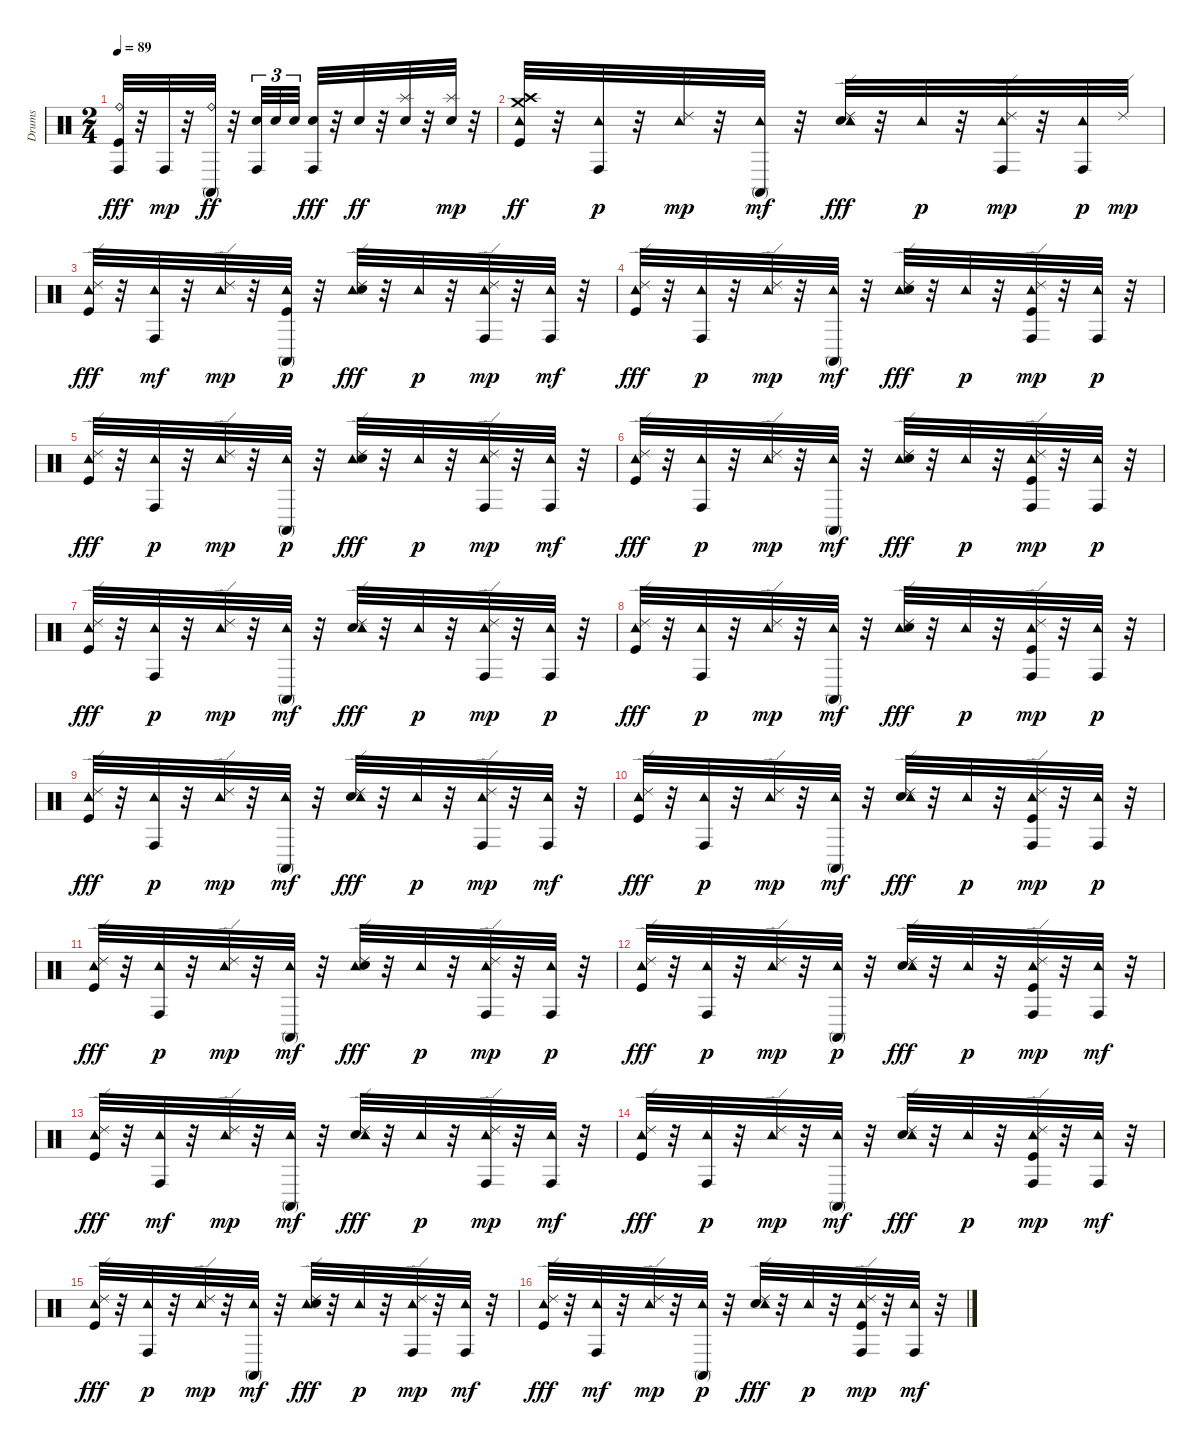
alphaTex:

\track ("Drums" "Drums") {instrument percussion}
\staff {score}
\articulation defaults
\ts (2 4)
\tempo 89
\clef neutral
\ks c
("Conga high (hit)" "Ride (bell)" "Kick (hit)").32{dy fff} r.32 "Conga high (hit)".32{dy mp} r.32 ("Ride (bell)" "Conga high (mute)").32{dy ff} r.32 ("Conga high (hit)" "Snare (hit) 2").32{tu (3 2)} "Snare (hit) 2".32{tu (3 2)} "Snare (hit) 2".32{tu (3 2)} ("Conga high (hit)" "Snare (hit) 2").32{dy fff} r.32 "Snare (hit) 2".32{dy ff} r.32 ("Snare (hit) 2" "Splash (hit)").32 r.32 ("Snare (hit) 2" "Splash (hit)").32{dy mp} r.32 |
("Crash high (hit)" "Kick (hit)" "Tambourine (hit)" "Crash medium (hit)").32{dy ff} r.32 ("Conga high (hit)" "Tambourine (hit)").32{dy p} r.32 ("Ride (edge) 2" "Tambourine (hit)").32{dy mp} r.32 ("Tambourine (hit)" "Conga high (mute)").32{dy mf} r.32 ("Snare (hit) 2" "Ride (edge) 2" "Tambourine (hit)").32{dy fff} r.32 "Tambourine (hit)".32{dy p} r.32 ("Conga high (hit)" "Ride (edge) 2" "Tambourine (hit)").32{dy mp} r.32 ("Conga high (hit)" "Tambourine (hit)").32{dy p} "Ride (edge) 2".32{dy mp} |
("Kick (hit)" "Tambourine (hit)" "Ride (edge) 2").32{dy fff} r.32 ("Tambourine (hit)" "Conga high (hit)").32{dy mf} r.32 ("Tambourine (hit)" "Ride (edge) 2").32{dy mp} r.32 ("Conga high (mute)" "Kick (hit)" "Tambourine (hit)").32{dy p} r.32 ("Tambourine (hit)" "Snare (hit) 2" "Ride (edge) 2").32{dy fff} r.32 "Tambourine (hit)".32{dy p} r.32 ("Conga high (hit)" "Ride (edge) 2" "Tambourine (hit)").32{dy mp} r.32 ("Tambourine (hit)" "Conga high (hit)").32{dy mf} r.32 |
("Kick (hit)" "Ride (edge) 2" "Tambourine (hit)").32{dy fff} r.32 ("Conga high (hit)" "Tambourine (hit)").32{dy p} r.32 ("Ride (edge) 2" "Tambourine (hit)").32{dy mp} r.32 ("Tambourine (hit)" "Conga high (mute)").32{dy mf} r.32 ("Tambourine (hit)" "Snare (hit) 2" "Ride (edge) 2").32{dy fff} r.32 "Tambourine (hit)".32{dy p} r.32 ("Kick (hit)" "Ride (edge) 2" "Tambourine (hit)" "Conga high (hit)").32{dy mp} r.32 ("Conga high (hit)" "Tambourine (hit)").32{dy p} r.32 |
("Kick (hit)" "Tambourine (hit)" "Ride (edge) 2").32{dy fff} r.32 ("Conga high (hit)" "Tambourine (hit)").32{dy p} r.32 ("Tambourine (hit)" "Ride (edge) 2").32{dy mp} r.32 ("Conga high (mute)" "Tambourine (hit)").32{dy p} r.32 ("Tambourine (hit)" "Snare (hit) 2" "Ride (edge) 2").32{dy fff} r.32 "Tambourine (hit)".32{dy p} r.32 ("Conga high (hit)" "Ride (edge) 2" "Tambourine (hit)").32{dy mp} r.32 ("Tambourine (hit)" "Conga high (hit)").32{dy mf} r.32 |
("Kick (hit)" "Ride (edge) 2" "Tambourine (hit)").32{dy fff} r.32 ("Conga high (hit)" "Tambourine (hit)").32{dy p} r.32 ("Tambourine (hit)" "Ride (edge) 2").32{dy mp} r.32 ("Tambourine (hit)" "Conga high (mute)").32{dy mf} r.32 ("Tambourine (hit)" "Snare (hit) 2" "Ride (edge) 2").32{dy fff} r.32 "Tambourine (hit)".32{dy p} r.32 ("Conga high (hit)" "Ride (edge) 2" "Tambourine (hit)" "Kick (hit)").32{dy mp} r.32 ("Conga high (hit)" "Tambourine (hit)").32{dy p} r.32 |
("Ride (edge) 2" "Kick (hit)" "Tambourine (hit)").32{dy fff} r.32 ("Conga high (hit)" "Tambourine (hit)").32{dy p} r.32 ("Tambourine (hit)" "Ride (edge) 2").32{dy mp} r.32 ("Tambourine (hit)" "Conga high (mute)").32{dy mf} r.32 ("Ride (edge) 2" "Snare (hit) 2" "Tambourine (hit)").32{dy fff} r.32 "Tambourine (hit)".32{dy p} r.32 ("Conga high (hit)" "Ride (edge) 2" "Tambourine (hit)").32{dy mp} r.32 ("Conga high (hit)" "Tambourine (hit)").32{dy p} r.32 |
("Kick (hit)" "Ride (edge) 2" "Tambourine (hit)").32{dy fff} r.32 ("Conga high (hit)" "Tambourine (hit)").32{dy p} r.32 ("Ride (edge) 2" "Tambourine (hit)").32{dy mp} r.32 ("Tambourine (hit)" "Conga high (mute)").32{dy mf} r.32 ("Tambourine (hit)" "Snare (hit) 2" "Ride (edge) 2").32{dy fff} r.32 "Tambourine (hit)".32{dy p} r.32 ("Ride (edge) 2" "Conga high (hit)" "Tambourine (hit)" "Kick (hit)").32{dy mp} r.32 ("Conga high (hit)" "Tambourine (hit)").32{dy p} r.32 |
("Kick (hit)" "Tambourine (hit)" "Ride (edge) 2").32{dy fff} r.32 ("Conga high (hit)" "Tambourine (hit)").32{dy p} r.32 ("Tambourine (hit)" "Ride (edge) 2").32{dy mp} r.32 ("Tambourine (hit)" "Conga high (mute)").32{dy mf} r.32 ("Snare (hit) 2" "Ride (edge) 2" "Tambourine (hit)").32{dy fff} r.32 "Tambourine (hit)".32{dy p} r.32 ("Conga high (hit)" "Ride (edge) 2" "Tambourine (hit)").32{dy mp} r.32 ("Tambourine (hit)" "Conga high (hit)").32{dy mf} r.32 |
("Kick (hit)" "Ride (edge) 2" "Tambourine (hit)").32{dy fff} r.32 ("Conga high (hit)" "Tambourine (hit)").32{dy p} r.32 ("Tambourine (hit)" "Ride (edge) 2").32{dy mp} r.32 ("Tambourine (hit)" "Conga high (mute)").32{dy mf} r.32 ("Snare (hit) 2" "Ride (edge) 2" "Tambourine (hit)").32{dy fff} r.32 "Tambourine (hit)".32{dy p} r.32 ("Conga high (hit)" "Kick (hit)" "Tambourine (hit)" "Ride (edge) 2").32{dy mp} r.32 ("Conga high (hit)" "Tambourine (hit)").32{dy p} r.32 |
("Ride (edge) 2" "Kick (hit)" "Tambourine (hit)").32{dy fff} r.32 ("Conga high (hit)" "Tambourine (hit)").32{dy p} r.32 ("Ride (edge) 2" "Tambourine (hit)").32{dy mp} r.32 ("Tambourine (hit)" "Conga high (mute)").32{dy mf} r.32 ("Ride (edge) 2" "Tambourine (hit)" "Snare (hit) 2").32{dy fff} r.32 "Tambourine (hit)".32{dy p} r.32 ("Conga high (hit)" "Ride (edge) 2" "Tambourine (hit)").32{dy mp} r.32 ("Conga high (hit)" "Tambourine (hit)").32{dy p} r.32 |
("Kick (hit)" "Ride (edge) 2" "Tambourine (hit)").32{dy fff} r.32 ("Conga high (hit)" "Tambourine (hit)").32{dy p} r.32 ("Ride (edge) 2" "Tambourine (hit)").32{dy mp} r.32 ("Conga high (mute)" "Tambourine (hit)").32{dy p} r.32 ("Snare (hit) 2" "Ride (edge) 2" "Tambourine (hit)").32{dy fff} r.32 "Tambourine (hit)".32{dy p} r.32 ("Tambourine (hit)" "Conga high (hit)" "Kick (hit)" "Ride (edge) 2").32{dy mp} r.32 ("Tambourine (hit)" "Conga high (hit)").32{dy mf} r.32 |
("Kick (hit)" "Tambourine (hit)" "Ride (edge) 2").32{dy fff} r.32 ("Tambourine (hit)" "Conga high (hit)").32{dy mf} r.32 ("Ride (edge) 2" "Tambourine (hit)").32{dy mp} r.32 ("Tambourine (hit)" "Conga high (mute)").32{dy mf} r.32 ("Snare (hit) 2" "Ride (edge) 2" "Tambourine (hit)").32{dy fff} r.32 "Tambourine (hit)".32{dy p} r.32 ("Ride (edge) 2" "Tambourine (hit)" "Conga high (hit)").32{dy mp} r.32 ("Tambourine (hit)" "Conga high (hit)").32{dy mf} r.32 |
("Tambourine (hit)" "Ride (edge) 2" "Kick (hit)").32{dy fff} r.32 ("Conga high (hit)" "Tambourine (hit)").32{dy p} r.32 ("Ride (edge) 2" "Tambourine (hit)").32{dy mp} r.32 ("Tambourine (hit)" "Conga high (mute)").32{dy mf} r.32 ("Snare (hit) 2" "Ride (edge) 2" "Tambourine (hit)").32{dy fff} r.32 "Tambourine (hit)".32{dy p} r.32 ("Conga high (hit)" "Kick (hit)" "Ride (edge) 2" "Tambourine (hit)").32{dy mp} r.32 ("Tambourine (hit)" "Conga high (hit)").32{dy mf} r.32 |
("Kick (hit)" "Tambourine (hit)" "Ride (edge) 2").32{dy fff} r.32 ("Conga high (hit)" "Tambourine (hit)").32{dy p} r.32 ("Ride (edge) 2" "Tambourine (hit)").32{dy mp} r.32 ("Tambourine (hit)" "Conga high (mute)").32{dy mf} r.32 ("Ride (edge) 2" "Tambourine (hit)" "Snare (hit) 2").32{dy fff} r.32 "Tambourine (hit)".32{dy p} r.32 ("Ride (edge) 2" "Tambourine (hit)" "Conga high (hit)").32{dy mp} r.32 ("Tambourine (hit)" "Conga high (hit)").32{dy mf} r.32 |
("Ride (edge) 2" "Tambourine (hit)" "Kick (hit)").32{dy fff} r.32 ("Tambourine (hit)" "Conga high (hit)").32{dy mf} r.32 ("Ride (edge) 2" "Tambourine (hit)").32{dy mp} r.32 ("Conga high (mute)" "Tambourine (hit)").32{dy p} r.32 ("Snare (hit) 2" "Ride (edge) 2" "Tambourine (hit)").32{dy fff} r.32 "Tambourine (hit)".32{dy p} r.32 ("Tambourine (hit)" "Conga high (hit)" "Kick (hit)" "Ride (edge) 2").32{dy mp} r.32 ("Tambourine (hit)" "Conga high (hit)").32{dy mf} r.32
